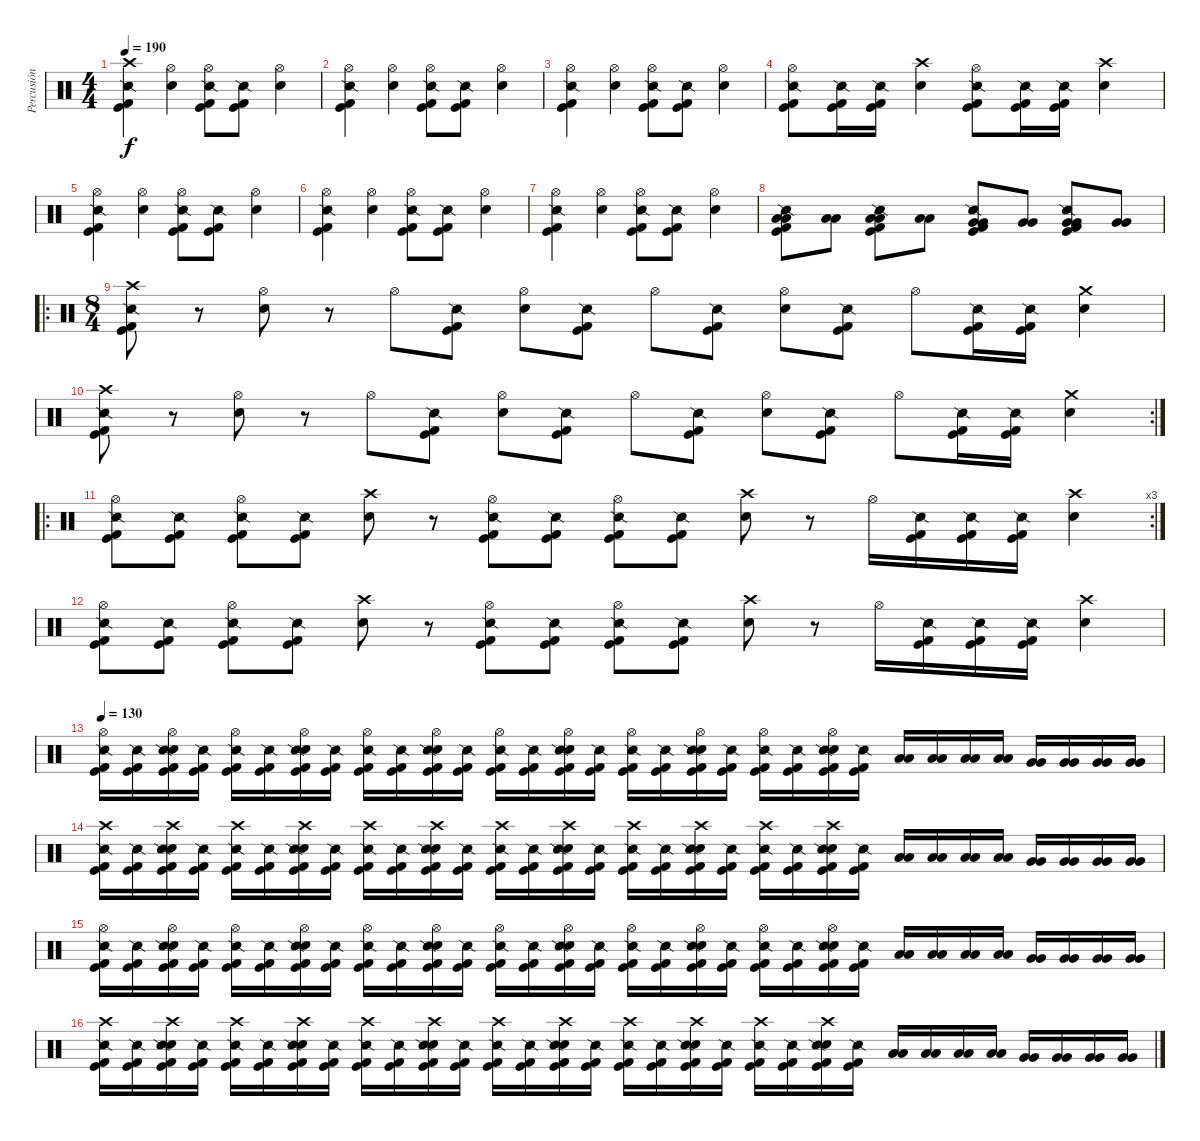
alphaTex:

\track ("Percusión" "Percusión") {instrument percussion}
\staff {score}
\articulation defaults
\ts (4 4)
\tempo 190
\clef neutral
\ks c
("Crash high (hit)" "Snare (side stick) 2" "Kick (hit)" "Kick (hit) 2").4{dy f} ("Hi-Hat (open)" "Snare (hit) 2").4 ("Hi-Hat (open)" "Snare (side stick) 2" "Kick (hit)" "Kick (hit) 2").8 ("Snare (side stick) 2" "Kick (hit)" "Kick (hit) 2").8 ("Hi-Hat (open)" "Snare (hit) 2").4 |
("Hi-Hat (open)" "Snare (side stick) 2" "Kick (hit)" "Kick (hit) 2").4 ("Hi-Hat (open)" "Snare (hit) 2").4 ("Hi-Hat (open)" "Snare (side stick) 2" "Kick (hit)" "Kick (hit) 2").8 ("Snare (side stick) 2" "Kick (hit)" "Kick (hit) 2").8 ("Hi-Hat (open)" "Snare (hit) 2").4 |
("Hi-Hat (open)" "Snare (side stick) 2" "Kick (hit)" "Kick (hit) 2").4 ("Hi-Hat (open)" "Snare (hit) 2").4 ("Hi-Hat (open)" "Snare (side stick) 2" "Kick (hit)" "Kick (hit) 2").8 ("Snare (side stick) 2" "Kick (hit)" "Kick (hit) 2").8 ("Hi-Hat (open)" "Snare (hit) 2").4 |
("Hi-Hat (open)" "Snare (side stick) 2" "Kick (hit)" "Kick (hit) 2").8 ("Snare (side stick) 2" "Kick (hit)" "Kick (hit) 2").16 ("Snare (side stick) 2" "Kick (hit)" "Kick (hit) 2").16 ("Crash high (hit)" "Snare (hit) 2").4 ("Hi-Hat (open)" "Snare (side stick) 2" "Kick (hit)" "Kick (hit) 2").8 ("Snare (side stick) 2" "Kick (hit)" "Kick (hit) 2").16 ("Snare (side stick) 2" "Kick (hit)" "Kick (hit) 2").16 ("Crash high (hit)" "Snare (hit) 2").4 |
("Hi-Hat (open)" "Snare (side stick) 2" "Kick (hit)" "Kick (hit) 2").4 ("Hi-Hat (open)" "Snare (hit) 2").4 ("Hi-Hat (open)" "Snare (side stick) 2" "Kick (hit)" "Kick (hit) 2").8 ("Snare (side stick) 2" "Kick (hit)" "Kick (hit) 2").8 ("Hi-Hat (open)" "Snare (hit) 2").4 |
("Hi-Hat (open)" "Snare (side stick) 2" "Kick (hit)" "Kick (hit) 2").4 ("Hi-Hat (open)" "Snare (hit) 2").4 ("Hi-Hat (open)" "Snare (side stick) 2" "Kick (hit)" "Kick (hit) 2").8 ("Snare (side stick) 2" "Kick (hit)" "Kick (hit) 2").8 ("Hi-Hat (open)" "Snare (hit) 2").4 |
("Hi-Hat (open)" "Snare (side stick) 2" "Kick (hit)" "Kick (hit) 2").4 ("Hi-Hat (open)" "Snare (hit) 2").4 ("Hi-Hat (open)" "Snare (side stick) 2" "Kick (hit)" "Kick (hit) 2").8 ("Snare (side stick) 2" "Kick (hit)" "Kick (hit) 2").8 ("Hi-Hat (open)" "Snare (hit) 2").4 |
("Low Tom (hit)" "Low Tom (hit)" "Snare (side stick) 2" "Kick (hit)" "Kick (hit) 2").8 ("Low Tom (hit)" "Low Tom (hit)").8 ("Low Tom (hit)" "Low Tom (hit)" "Snare (side stick) 2" "Kick (hit)" "Kick (hit) 2").8 ("Low Tom (hit)" "Low Tom (hit)").8 ("Very Low Tom (hit)" "Very Low Tom (hit)" "Snare (side stick) 2" "Kick (hit)" "Kick (hit) 2").8 ("Very Low Tom (hit)" "Very Low Tom (hit)").8 ("Very Low Tom (hit)" "Very Low Tom (hit)" "Snare (side stick) 2" "Kick (hit)" "Kick (hit) 2").8 ("Very Low Tom (hit)" "Very Low Tom (hit)").8 |
\ro
\ts (8 4)
("Crash high (hit)" "Snare (side stick) 2" "Kick (hit)" "Kick (hit) 2").8 r.8 ("Hi-Hat (open)" "Snare (hit) 2").8 r.8 "Hi-Hat (open)".8 ("Snare (side stick) 2" "Kick (hit)" "Kick (hit) 2").8 ("Hi-Hat (open)" "Snare (hit) 2").8 ("Snare (side stick) 2" "Kick (hit)" "Kick (hit) 2").8 "Hi-Hat (open)".8 ("Snare (side stick) 2" "Kick (hit)" "Kick (hit) 2").8 ("Hi-Hat (open)" "Snare (hit) 2").8 ("Snare (side stick) 2" "Kick (hit)" "Kick (hit) 2").8 "Hi-Hat (open)".8 ("Snare (side stick) 2" "Kick (hit)" "Kick (hit) 2").16 ("Snare (side stick) 2" "Kick (hit)" "Kick (hit) 2").16 ("Crash medium (hit)" "Snare (hit) 2").4 |
\rc 2
("Crash high (hit)" "Snare (side stick) 2" "Kick (hit)" "Kick (hit) 2").8 r.8 ("Hi-Hat (open)" "Snare (hit) 2").8 r.8 "Hi-Hat (open)".8 ("Snare (side stick) 2" "Kick (hit)" "Kick (hit) 2").8 ("Hi-Hat (open)" "Snare (hit) 2").8 ("Snare (side stick) 2" "Kick (hit)" "Kick (hit) 2").8 "Hi-Hat (open)".8 ("Snare (side stick) 2" "Kick (hit)" "Kick (hit) 2").8 ("Hi-Hat (open)" "Snare (hit) 2").8 ("Snare (side stick) 2" "Kick (hit)" "Kick (hit) 2").8 "Hi-Hat (open)".8 ("Snare (side stick) 2" "Kick (hit)" "Kick (hit) 2").16 ("Snare (side stick) 2" "Kick (hit)" "Kick (hit) 2").16 ("Crash medium (hit)" "Snare (hit) 2").4 |
\ro
\rc 3
("Hi-Hat (open)" "Snare (side stick) 2" "Kick (hit)" "Kick (hit) 2").8 ("Snare (side stick) 2" "Kick (hit)" "Kick (hit) 2").8 ("Hi-Hat (open)" "Snare (side stick) 2" "Kick (hit)" "Kick (hit) 2").8 ("Snare (side stick) 2" "Kick (hit)" "Kick (hit) 2").8 ("Crash high (hit)" "Snare (hit) 2").8 r.8 ("Hi-Hat (open)" "Snare (side stick) 2" "Kick (hit)" "Kick (hit) 2").8 ("Snare (side stick) 2" "Kick (hit)" "Kick (hit) 2").8 ("Hi-Hat (open)" "Snare (side stick) 2" "Kick (hit)" "Kick (hit) 2").8 ("Snare (side stick) 2" "Kick (hit)" "Kick (hit) 2").8 ("Crash high (hit)" "Snare (hit) 2").8 r.8 "Hi-Hat (open)".16 ("Snare (side stick) 2" "Kick (hit)" "Kick (hit) 2").16 ("Snare (side stick) 2" "Kick (hit)" "Kick (hit) 2").16 ("Snare (side stick) 2" "Kick (hit)" "Kick (hit) 2").16 ("Crash high (hit)" "Snare (hit) 2").4 |
("Hi-Hat (open)" "Snare (side stick) 2" "Kick (hit)" "Kick (hit) 2").8 ("Snare (side stick) 2" "Kick (hit)" "Kick (hit) 2").8 ("Hi-Hat (open)" "Snare (side stick) 2" "Kick (hit)" "Kick (hit) 2").8 ("Snare (side stick) 2" "Kick (hit)" "Kick (hit) 2").8 ("Crash high (hit)" "Snare (hit) 2").8 r.8 ("Hi-Hat (open)" "Snare (side stick) 2" "Kick (hit)" "Kick (hit) 2").8 ("Snare (side stick) 2" "Kick (hit)" "Kick (hit) 2").8 ("Hi-Hat (open)" "Snare (side stick) 2" "Kick (hit)" "Kick (hit) 2").8 ("Snare (side stick) 2" "Kick (hit)" "Kick (hit) 2").8 ("Crash high (hit)" "Snare (hit) 2").8 r.8 "Hi-Hat (open)".16 ("Snare (side stick) 2" "Kick (hit)" "Kick (hit) 2").16 ("Snare (side stick) 2" "Kick (hit)" "Kick (hit) 2").16 ("Snare (side stick) 2" "Kick (hit)" "Kick (hit) 2").16 ("Crash high (hit)" "Snare (hit) 2").4 |
\tempo 130
("Hi-Hat (open)" "Snare (side stick) 2" "Kick (hit)" "Kick (hit) 2").16 ("Snare (side stick) 2" "Kick (hit)" "Kick (hit) 2").16 ("Hi-Hat (open)" "Snare (hit) 2" "Snare (side stick) 2" "Kick (hit)" "Kick (hit) 2").16 ("Snare (side stick) 2" "Kick (hit)" "Kick (hit) 2").16 ("Hi-Hat (open)" "Snare (side stick) 2" "Kick (hit)" "Kick (hit) 2").16 ("Snare (side stick) 2" "Kick (hit)" "Kick (hit) 2").16 ("Hi-Hat (open)" "Snare (hit) 2" "Snare (side stick) 2" "Kick (hit)" "Kick (hit) 2").16 ("Snare (side stick) 2" "Kick (hit)" "Kick (hit) 2").16 ("Hi-Hat (open)" "Snare (side stick) 2" "Kick (hit)" "Kick (hit) 2").16 ("Snare (side stick) 2" "Kick (hit)" "Kick (hit) 2").16 ("Hi-Hat (open)" "Snare (hit) 2" "Snare (side stick) 2" "Kick (hit)" "Kick (hit) 2").16 ("Snare (side stick) 2" "Kick (hit)" "Kick (hit) 2").16 ("Hi-Hat (open)" "Snare (side stick) 2" "Kick (hit)" "Kick (hit) 2").16 ("Snare (side stick) 2" "Kick (hit)" "Kick (hit) 2").16 ("Hi-Hat (open)" "Snare (hit) 2" "Snare (side stick) 2" "Kick (hit)" "Kick (hit) 2").16 ("Snare (side stick) 2" "Kick (hit)" "Kick (hit) 2").16 ("Hi-Hat (open)" "Snare (side stick) 2" "Kick (hit)" "Kick (hit) 2").16 ("Snare (side stick) 2" "Kick (hit)" "Kick (hit) 2").16 ("Hi-Hat (open)" "Snare (hit) 2" "Snare (side stick) 2" "Kick (hit)" "Kick (hit) 2").16 ("Snare (side stick) 2" "Kick (hit)" "Kick (hit) 2").16 ("Hi-Hat (open)" "Snare (side stick) 2" "Kick (hit)" "Kick (hit) 2").16 ("Snare (side stick) 2" "Kick (hit)" "Kick (hit) 2").16 ("Hi-Hat (open)" "Snare (hit) 2" "Snare (side stick) 2" "Kick (hit)" "Kick (hit) 2").16 ("Snare (side stick) 2" "Kick (hit)" "Kick (hit) 2").16 ("Low Tom (hit)" "Low Tom (hit)").16 ("Low Tom (hit)" "Low Tom (hit)").16 ("Low Tom (hit)" "Low Tom (hit)").16 ("Low Tom (hit)" "Low Tom (hit)").16 ("Very Low Tom (hit)" "Very Low Tom (hit)").16 ("Very Low Tom (hit)" "Very Low Tom (hit)").16 ("Very Low Tom (hit)" "Very Low Tom (hit)").16 ("Very Low Tom (hit)" "Very Low Tom (hit)").16 |
("Crash high (hit)" "Snare (side stick) 2" "Kick (hit)" "Kick (hit) 2").16 ("Snare (side stick) 2" "Kick (hit)" "Kick (hit) 2").16 ("Crash high (hit)" "Snare (hit) 2" "Snare (side stick) 2" "Kick (hit)" "Kick (hit) 2").16 ("Snare (side stick) 2" "Kick (hit)" "Kick (hit) 2").16 ("Crash high (hit)" "Snare (side stick) 2" "Kick (hit)" "Kick (hit) 2").16 ("Snare (side stick) 2" "Kick (hit)" "Kick (hit) 2").16 ("Crash high (hit)" "Snare (hit) 2" "Snare (side stick) 2" "Kick (hit)" "Kick (hit) 2").16 ("Snare (side stick) 2" "Kick (hit)" "Kick (hit) 2").16 ("Crash high (hit)" "Snare (side stick) 2" "Kick (hit)" "Kick (hit) 2").16 ("Snare (side stick) 2" "Kick (hit)" "Kick (hit) 2").16 ("Crash high (hit)" "Snare (hit) 2" "Snare (side stick) 2" "Kick (hit)" "Kick (hit) 2").16 ("Snare (side stick) 2" "Kick (hit)" "Kick (hit) 2").16 ("Crash high (hit)" "Snare (side stick) 2" "Kick (hit)" "Kick (hit) 2").16 ("Snare (side stick) 2" "Kick (hit)" "Kick (hit) 2").16 ("Crash high (hit)" "Snare (hit) 2" "Snare (side stick) 2" "Kick (hit)" "Kick (hit) 2").16 ("Snare (side stick) 2" "Kick (hit)" "Kick (hit) 2").16 ("Crash high (hit)" "Snare (side stick) 2" "Kick (hit)" "Kick (hit) 2").16 ("Snare (side stick) 2" "Kick (hit)" "Kick (hit) 2").16 ("Crash high (hit)" "Snare (hit) 2" "Snare (side stick) 2" "Kick (hit)" "Kick (hit) 2").16 ("Snare (side stick) 2" "Kick (hit)" "Kick (hit) 2").16 ("Crash high (hit)" "Snare (side stick) 2" "Kick (hit)" "Kick (hit) 2").16 ("Snare (side stick) 2" "Kick (hit)" "Kick (hit) 2").16 ("Crash high (hit)" "Snare (hit) 2" "Snare (side stick) 2" "Kick (hit)" "Kick (hit) 2").16 ("Snare (side stick) 2" "Kick (hit)" "Kick (hit) 2").16 ("Low Tom (hit)" "Low Tom (hit)").16 ("Low Tom (hit)" "Low Tom (hit)").16 ("Low Tom (hit)" "Low Tom (hit)").16 ("Low Tom (hit)" "Low Tom (hit)").16 ("Very Low Tom (hit)" "Very Low Tom (hit)").16 ("Very Low Tom (hit)" "Very Low Tom (hit)").16 ("Very Low Tom (hit)" "Very Low Tom (hit)").16 ("Very Low Tom (hit)" "Very Low Tom (hit)").16 |
("Hi-Hat (open)" "Snare (side stick) 2" "Kick (hit)" "Kick (hit) 2").16 ("Snare (side stick) 2" "Kick (hit)" "Kick (hit) 2").16 ("Hi-Hat (open)" "Snare (hit) 2" "Snare (side stick) 2" "Kick (hit)" "Kick (hit) 2").16 ("Snare (side stick) 2" "Kick (hit)" "Kick (hit) 2").16 ("Hi-Hat (open)" "Snare (side stick) 2" "Kick (hit)" "Kick (hit) 2").16 ("Snare (side stick) 2" "Kick (hit)" "Kick (hit) 2").16 ("Hi-Hat (open)" "Snare (hit) 2" "Snare (side stick) 2" "Kick (hit)" "Kick (hit) 2").16 ("Snare (side stick) 2" "Kick (hit)" "Kick (hit) 2").16 ("Hi-Hat (open)" "Snare (side stick) 2" "Kick (hit)" "Kick (hit) 2").16 ("Snare (side stick) 2" "Kick (hit)" "Kick (hit) 2").16 ("Hi-Hat (open)" "Snare (hit) 2" "Snare (side stick) 2" "Kick (hit)" "Kick (hit) 2").16 ("Snare (side stick) 2" "Kick (hit)" "Kick (hit) 2").16 ("Hi-Hat (open)" "Snare (side stick) 2" "Kick (hit)" "Kick (hit) 2").16 ("Snare (side stick) 2" "Kick (hit)" "Kick (hit) 2").16 ("Hi-Hat (open)" "Snare (hit) 2" "Snare (side stick) 2" "Kick (hit)" "Kick (hit) 2").16 ("Snare (side stick) 2" "Kick (hit)" "Kick (hit) 2").16 ("Hi-Hat (open)" "Snare (side stick) 2" "Kick (hit)" "Kick (hit) 2").16 ("Snare (side stick) 2" "Kick (hit)" "Kick (hit) 2").16 ("Hi-Hat (open)" "Snare (hit) 2" "Snare (side stick) 2" "Kick (hit)" "Kick (hit) 2").16 ("Snare (side stick) 2" "Kick (hit)" "Kick (hit) 2").16 ("Hi-Hat (open)" "Snare (side stick) 2" "Kick (hit)" "Kick (hit) 2").16 ("Snare (side stick) 2" "Kick (hit)" "Kick (hit) 2").16 ("Hi-Hat (open)" "Snare (hit) 2" "Snare (side stick) 2" "Kick (hit)" "Kick (hit) 2").16 ("Snare (side stick) 2" "Kick (hit)" "Kick (hit) 2").16 ("Low Tom (hit)" "Low Tom (hit)").16 ("Low Tom (hit)" "Low Tom (hit)").16 ("Low Tom (hit)" "Low Tom (hit)").16 ("Low Tom (hit)" "Low Tom (hit)").16 ("Very Low Tom (hit)" "Very Low Tom (hit)").16 ("Very Low Tom (hit)" "Very Low Tom (hit)").16 ("Very Low Tom (hit)" "Very Low Tom (hit)").16 ("Very Low Tom (hit)" "Very Low Tom (hit)").16 |
("Crash high (hit)" "Snare (side stick) 2" "Kick (hit)" "Kick (hit) 2").16 ("Snare (side stick) 2" "Kick (hit)" "Kick (hit) 2").16 ("Crash high (hit)" "Snare (hit) 2" "Snare (side stick) 2" "Kick (hit)" "Kick (hit) 2").16 ("Snare (side stick) 2" "Kick (hit)" "Kick (hit) 2").16 ("Crash high (hit)" "Snare (side stick) 2" "Kick (hit)" "Kick (hit) 2").16 ("Snare (side stick) 2" "Kick (hit)" "Kick (hit) 2").16 ("Crash high (hit)" "Snare (hit) 2" "Snare (side stick) 2" "Kick (hit)" "Kick (hit) 2").16 ("Snare (side stick) 2" "Kick (hit)" "Kick (hit) 2").16 ("Crash high (hit)" "Snare (side stick) 2" "Kick (hit)" "Kick (hit) 2").16 ("Snare (side stick) 2" "Kick (hit)" "Kick (hit) 2").16 ("Crash high (hit)" "Snare (hit) 2" "Snare (side stick) 2" "Kick (hit)" "Kick (hit) 2").16 ("Snare (side stick) 2" "Kick (hit)" "Kick (hit) 2").16 ("Crash high (hit)" "Snare (side stick) 2" "Kick (hit)" "Kick (hit) 2").16 ("Snare (side stick) 2" "Kick (hit)" "Kick (hit) 2").16 ("Crash high (hit)" "Snare (hit) 2" "Snare (side stick) 2" "Kick (hit)" "Kick (hit) 2").16 ("Snare (side stick) 2" "Kick (hit)" "Kick (hit) 2").16 ("Crash high (hit)" "Snare (side stick) 2" "Kick (hit)" "Kick (hit) 2").16 ("Snare (side stick) 2" "Kick (hit)" "Kick (hit) 2").16 ("Crash high (hit)" "Snare (hit) 2" "Snare (side stick) 2" "Kick (hit)" "Kick (hit) 2").16 ("Snare (side stick) 2" "Kick (hit)" "Kick (hit) 2").16 ("Crash high (hit)" "Snare (side stick) 2" "Kick (hit)" "Kick (hit) 2").16 ("Snare (side stick) 2" "Kick (hit)" "Kick (hit) 2").16 ("Crash high (hit)" "Snare (hit) 2" "Snare (side stick) 2" "Kick (hit)" "Kick (hit) 2").16 ("Snare (side stick) 2" "Kick (hit)" "Kick (hit) 2").16 ("Low Tom (hit)" "Low Tom (hit)").16 ("Low Tom (hit)" "Low Tom (hit)").16 ("Low Tom (hit)" "Low Tom (hit)").16 ("Low Tom (hit)" "Low Tom (hit)").16 ("Very Low Tom (hit)" "Very Low Tom (hit)").16 ("Very Low Tom (hit)" "Very Low Tom (hit)").16 ("Very Low Tom (hit)" "Very Low Tom (hit)").16 ("Very Low Tom (hit)" "Very Low Tom (hit)").16
